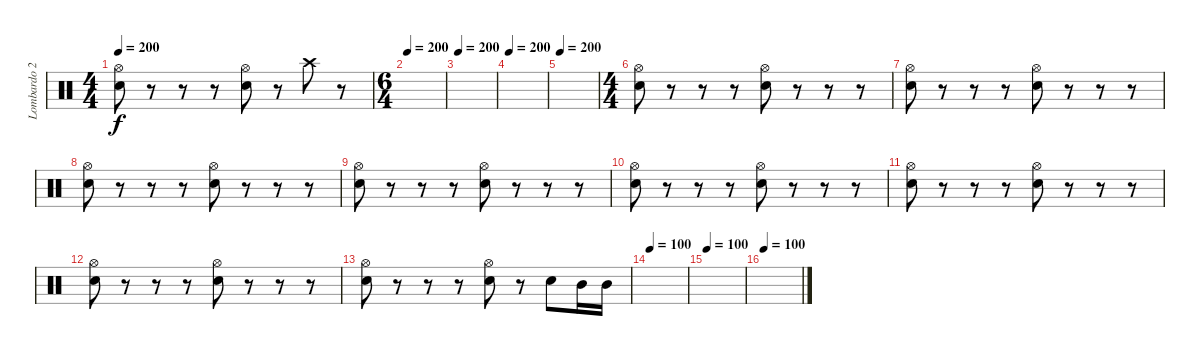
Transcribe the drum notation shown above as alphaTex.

\track ("Lombardo 2" "Lombardo 2") {instrument percussion}
\staff {score}
\articulation defaults
\ts (4 4)
\tempo 200
\clef neutral
\ks c
("Hi-Hat (open)" "Electric Snare (hit)").8{dy f} r.8 r.8 r.8 ("Hi-Hat (open)" "Electric Snare (hit)").8 r.8 "Crash high (hit)".8 r.8 |
\ts (6 4)
\tempo 200
|
\tempo 200
|
\tempo 200
|
\tempo 200
|
\ts (4 4)
("Hi-Hat (open)" "Electric Snare (hit)").8 r.8 r.8 r.8 ("Hi-Hat (open)" "Electric Snare (hit)").8 r.8 r.8 r.8 |
("Hi-Hat (open)" "Electric Snare (hit)").8 r.8 r.8 r.8 ("Hi-Hat (open)" "Electric Snare (hit)").8 r.8 r.8 r.8 |
("Hi-Hat (open)" "Electric Snare (hit)").8 r.8 r.8 r.8 ("Hi-Hat (open)" "Electric Snare (hit)").8 r.8 r.8 r.8 |
("Hi-Hat (open)" "Electric Snare (hit)").8 r.8 r.8 r.8 ("Hi-Hat (open)" "Electric Snare (hit)").8 r.8 r.8 r.8 |
("Hi-Hat (open)" "Electric Snare (hit)").8 r.8 r.8 r.8 ("Hi-Hat (open)" "Electric Snare (hit)").8 r.8 r.8 r.8 |
("Hi-Hat (open)" "Electric Snare (hit)").8 r.8 r.8 r.8 ("Hi-Hat (open)" "Electric Snare (hit)").8 r.8 r.8 r.8 |
("Hi-Hat (open)" "Electric Snare (hit)").8 r.8 r.8 r.8 ("Hi-Hat (open)" "Electric Snare (hit)").8 r.8 r.8 r.8 |
("Hi-Hat (open)" "Electric Snare (hit)").8 r.8 r.8 r.8 ("Hi-Hat (open)" "Electric Snare (hit)").8 r.8 "Electric Snare (hit)".8 "Mid Tom (hit)".16 "Mid Tom (hit)".16 |
\tempo 100
|
\tempo 100
|
\tempo 110
\tempo 100
